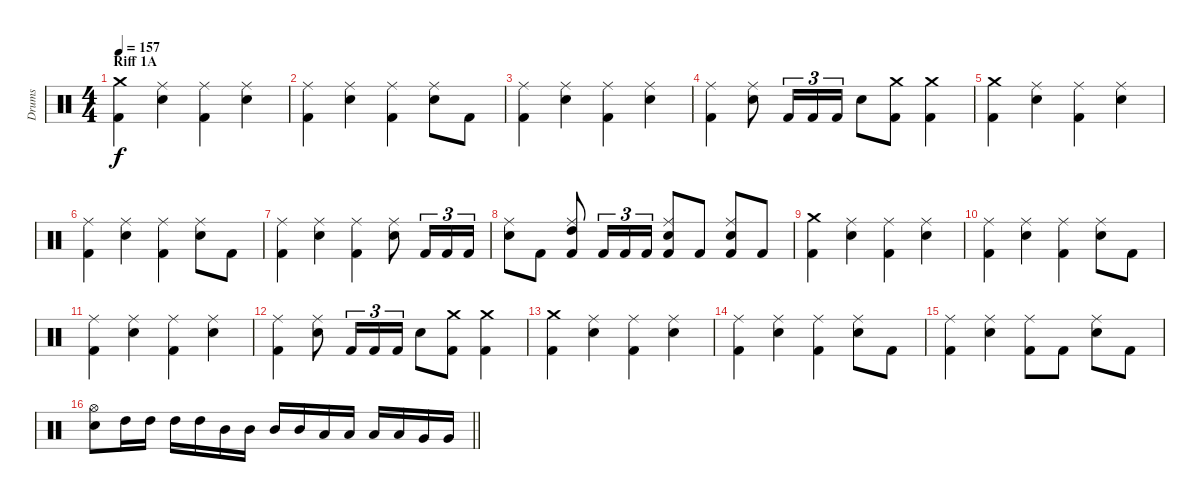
\track ("Drums" "Drums") {instrument percussion}
\staff {score}
\articulation defaults
\ts (4 4)
\section ("" "Riff 1A")
\tempo 157
\clef neutral
\ks c
("Crash medium (hit)" "Kick (hit) 2").4{dy f} ("Ride (middle)" "Electric Snare (hit)").4 ("Ride (middle)" "Kick (hit) 2").4 ("Ride (middle)" "Electric Snare (hit)").4 |
("Ride (middle)" "Kick (hit) 2").4 ("Ride (middle)" "Electric Snare (hit)").4 ("Ride (middle)" "Kick (hit) 2").4 ("Ride (middle)" "Electric Snare (hit)").8 "Kick (hit) 2".8 |
("Ride (middle)" "Kick (hit) 2").4 ("Ride (middle)" "Electric Snare (hit)").4 ("Ride (middle)" "Kick (hit) 2").4 ("Ride (middle)" "Electric Snare (hit)").4 |
("Ride (middle)" "Kick (hit) 2").4 ("Ride (middle)" "Electric Snare (hit)").8 "Kick (hit) 2".16{tu (3 2)} "Kick (hit) 2".16{tu (3 2)} "Kick (hit) 2".16{tu (3 2)} "Electric Snare (hit)".8 ("Crash medium (hit)" "Kick (hit) 2").8 ("Crash medium (hit)" "Kick (hit) 2").4 |
("Crash medium (hit)" "Kick (hit) 2").4 ("Ride (middle)" "Electric Snare (hit)").4 ("Ride (middle)" "Kick (hit) 2").4 ("Ride (middle)" "Electric Snare (hit)").4 |
("Ride (middle)" "Kick (hit) 2").4 ("Ride (middle)" "Electric Snare (hit)").4 ("Ride (middle)" "Kick (hit) 2").4 ("Ride (middle)" "Electric Snare (hit)").8 "Kick (hit) 2".8 |
("Ride (middle)" "Kick (hit) 2").4 ("Ride (middle)" "Electric Snare (hit)").4 ("Ride (middle)" "Kick (hit) 2").4 ("Ride (middle)" "Electric Snare (hit)").8 "Kick (hit) 2".16{tu (3 2)} "Kick (hit) 2".16{tu (3 2)} "Kick (hit) 2".16{tu (3 2)} |
("Ride (middle)" "Electric Snare (hit)").8 "Kick (hit) 2".8 ("Ride (middle)" "High Tom (hit)" "Kick (hit) 2").8 "Kick (hit) 2".16{tu (3 2)} "Kick (hit) 2".16{tu (3 2)} "Kick (hit) 2".16{tu (3 2)} ("Ride (middle)" "Electric Snare (hit)" "Kick (hit) 2").8 "Kick (hit) 2".8 ("Ride (middle)" "Electric Snare (hit)" "Kick (hit) 2").8 "Kick (hit) 2".8 |
("Crash medium (hit)" "Kick (hit) 2").4 ("Ride (middle)" "Electric Snare (hit)").4 ("Ride (middle)" "Kick (hit) 2").4 ("Ride (middle)" "Electric Snare (hit)").4 |
("Ride (middle)" "Kick (hit) 2").4 ("Ride (middle)" "Electric Snare (hit)").4 ("Ride (middle)" "Kick (hit) 2").4 ("Ride (middle)" "Electric Snare (hit)").8 "Kick (hit) 2".8 |
("Ride (middle)" "Kick (hit) 2").4 ("Ride (middle)" "Electric Snare (hit)").4 ("Ride (middle)" "Kick (hit) 2").4 ("Ride (middle)" "Electric Snare (hit)").4 |
("Ride (middle)" "Kick (hit) 2").4 ("Ride (middle)" "Electric Snare (hit)").8 "Kick (hit) 2".16{tu (3 2)} "Kick (hit) 2".16{tu (3 2)} "Kick (hit) 2".16{tu (3 2)} "Electric Snare (hit)".8 ("Crash medium (hit)" "Kick (hit) 2").8 ("Crash medium (hit)" "Kick (hit) 2").4 |
("Crash medium (hit)" "Kick (hit) 2").4 ("Ride (middle)" "Electric Snare (hit)").4 ("Ride (middle)" "Kick (hit) 2").4 ("Ride (middle)" "Electric Snare (hit)").4 |
("Ride (middle)" "Kick (hit) 2").4 ("Ride (middle)" "Electric Snare (hit)").4 ("Ride (middle)" "Kick (hit) 2").4 ("Ride (middle)" "Electric Snare (hit)").8 "Kick (hit) 2".8 |
("Ride (middle)" "Kick (hit) 2").4 ("Ride (middle)" "Electric Snare (hit)").4 ("Ride (middle)" "Kick (hit) 2").8 "Kick (hit) 2".8 ("Ride (middle)" "Electric Snare (hit)").8 "Kick (hit) 2".8 |
\barLineRight lightlight
("Hi-Hat (open)" "Electric Snare (hit)").8 "High Tom (hit)".16 "High Tom (hit)".16 "High Tom (hit)".16 "High Tom (hit)".16 "Mid Tom (hit)".16 "Mid Tom (hit)".16 "Mid Tom (hit)".16 "Mid Tom (hit)".16 "Low Tom (hit)".16 "Low Tom (hit)".16 "Low Tom (hit)".16 "Low Tom (hit)".16 "Very Low Tom (hit)".16 "Very Low Tom (hit)".16
